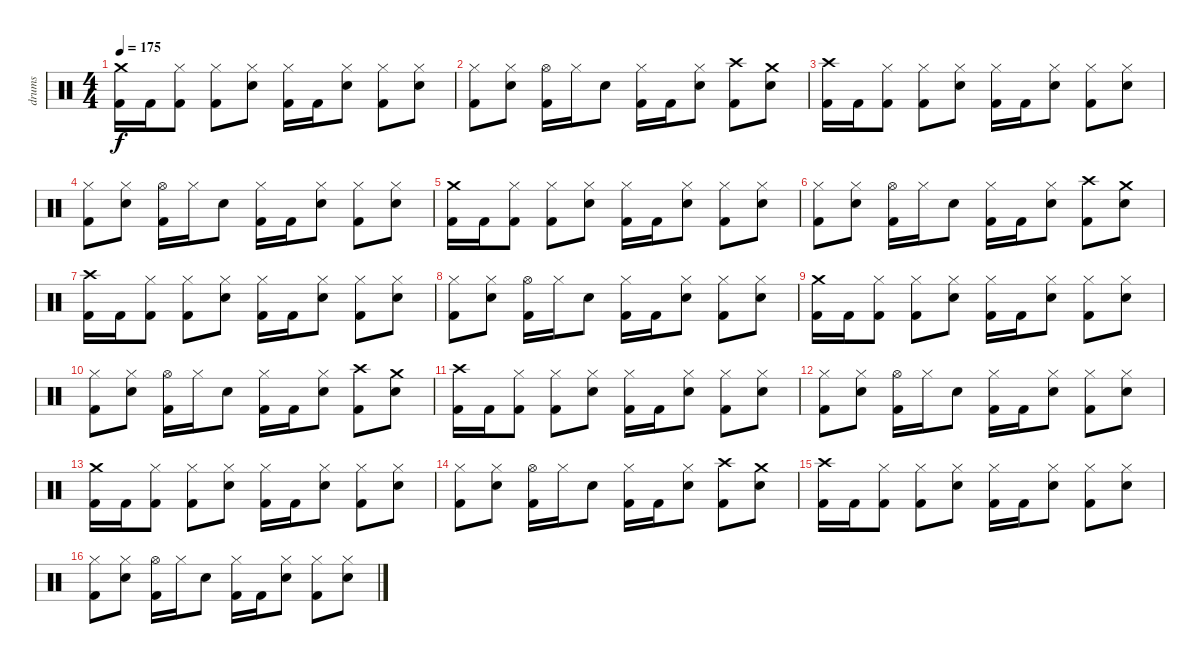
\track ("drums" "drums") {instrument percussion}
\staff {score}
\articulation defaults
\ts (4 4)
\tempo 175
\clef neutral
\ks c
("Crash medium (hit)" "Kick (hit) 2").16{dy f} "Kick (hit) 2".16 ("Hi-Hat (closed)" "Kick (hit) 2").8 ("Hi-Hat (closed)" "Kick (hit) 2").8 ("Hi-Hat (closed)" "Electric Snare (hit)").8 ("Hi-Hat (closed)" "Kick (hit) 2").16 "Kick (hit) 2".16 ("Hi-Hat (closed)" "Electric Snare (hit)").8 ("Hi-Hat (closed)" "Kick (hit) 2").8 ("Hi-Hat (closed)" "Electric Snare (hit)").8 |
("Hi-Hat (closed)" "Kick (hit) 2").8 ("Hi-Hat (closed)" "Electric Snare (hit)").8 ("Hi-Hat (open)" "Kick (hit) 2").16 "Hi-Hat (closed)".16 "Electric Snare (hit)".8 ("Hi-Hat (closed)" "Kick (hit) 2").16 "Kick (hit) 2".16 ("Hi-Hat (closed)" "Electric Snare (hit)").8 ("Crash high (hit)" "Kick (hit) 2").8 ("Crash medium (hit)" "Electric Snare (hit)").8 |
("Crash high (hit)" "Kick (hit) 2").16 "Kick (hit) 2".16 ("Hi-Hat (closed)" "Kick (hit) 2").8 ("Hi-Hat (closed)" "Kick (hit) 2").8 ("Hi-Hat (closed)" "Electric Snare (hit)").8 ("Hi-Hat (closed)" "Kick (hit) 2").16 "Kick (hit) 2".16 ("Hi-Hat (closed)" "Electric Snare (hit)").8 ("Hi-Hat (closed)" "Kick (hit) 2").8 ("Hi-Hat (closed)" "Electric Snare (hit)").8 |
("Hi-Hat (closed)" "Kick (hit) 2").8 ("Hi-Hat (closed)" "Electric Snare (hit)").8 ("Hi-Hat (open)" "Kick (hit) 2").16 "Hi-Hat (closed)".16 "Electric Snare (hit)".8 ("Hi-Hat (closed)" "Kick (hit) 2").16 "Kick (hit) 2".16 ("Hi-Hat (closed)" "Electric Snare (hit)").8 ("Hi-Hat (closed)" "Kick (hit) 2").8 ("Hi-Hat (closed)" "Electric Snare (hit)").8 |
("Crash medium (hit)" "Kick (hit) 2").16 "Kick (hit) 2".16 ("Hi-Hat (closed)" "Kick (hit) 2").8 ("Hi-Hat (closed)" "Kick (hit) 2").8 ("Hi-Hat (closed)" "Electric Snare (hit)").8 ("Hi-Hat (closed)" "Kick (hit) 2").16 "Kick (hit) 2".16 ("Hi-Hat (closed)" "Electric Snare (hit)").8 ("Hi-Hat (closed)" "Kick (hit) 2").8 ("Hi-Hat (closed)" "Electric Snare (hit)").8 |
("Hi-Hat (closed)" "Kick (hit) 2").8 ("Hi-Hat (closed)" "Electric Snare (hit)").8 ("Hi-Hat (open)" "Kick (hit) 2").16 "Hi-Hat (closed)".16 "Electric Snare (hit)".8 ("Hi-Hat (closed)" "Kick (hit) 2").16 "Kick (hit) 2".16 ("Hi-Hat (closed)" "Electric Snare (hit)").8 ("Crash high (hit)" "Kick (hit) 2").8 ("Crash medium (hit)" "Electric Snare (hit)").8 |
("Crash high (hit)" "Kick (hit) 2").16 "Kick (hit) 2".16 ("Hi-Hat (closed)" "Kick (hit) 2").8 ("Hi-Hat (closed)" "Kick (hit) 2").8 ("Hi-Hat (closed)" "Electric Snare (hit)").8 ("Hi-Hat (closed)" "Kick (hit) 2").16 "Kick (hit) 2".16 ("Hi-Hat (closed)" "Electric Snare (hit)").8 ("Hi-Hat (closed)" "Kick (hit) 2").8 ("Hi-Hat (closed)" "Electric Snare (hit)").8 |
("Hi-Hat (closed)" "Kick (hit) 2").8 ("Hi-Hat (closed)" "Electric Snare (hit)").8 ("Hi-Hat (open)" "Kick (hit) 2").16 "Hi-Hat (closed)".16 "Electric Snare (hit)".8 ("Hi-Hat (closed)" "Kick (hit) 2").16 "Kick (hit) 2".16 ("Hi-Hat (closed)" "Electric Snare (hit)").8 ("Hi-Hat (closed)" "Kick (hit) 2").8 ("Hi-Hat (closed)" "Electric Snare (hit)").8 |
("Crash medium (hit)" "Kick (hit) 2").16 "Kick (hit) 2".16 ("Hi-Hat (closed)" "Kick (hit) 2").8 ("Hi-Hat (closed)" "Kick (hit) 2").8 ("Hi-Hat (closed)" "Electric Snare (hit)").8 ("Hi-Hat (closed)" "Kick (hit) 2").16 "Kick (hit) 2".16 ("Hi-Hat (closed)" "Electric Snare (hit)").8 ("Hi-Hat (closed)" "Kick (hit) 2").8 ("Hi-Hat (closed)" "Electric Snare (hit)").8 |
("Hi-Hat (closed)" "Kick (hit) 2").8 ("Hi-Hat (closed)" "Electric Snare (hit)").8 ("Hi-Hat (open)" "Kick (hit) 2").16 "Hi-Hat (closed)".16 "Electric Snare (hit)".8 ("Hi-Hat (closed)" "Kick (hit) 2").16 "Kick (hit) 2".16 ("Hi-Hat (closed)" "Electric Snare (hit)").8 ("Crash high (hit)" "Kick (hit) 2").8 ("Crash medium (hit)" "Electric Snare (hit)").8 |
("Crash high (hit)" "Kick (hit) 2").16 "Kick (hit) 2".16 ("Hi-Hat (closed)" "Kick (hit) 2").8 ("Hi-Hat (closed)" "Kick (hit) 2").8 ("Hi-Hat (closed)" "Electric Snare (hit)").8 ("Hi-Hat (closed)" "Kick (hit) 2").16 "Kick (hit) 2".16 ("Hi-Hat (closed)" "Electric Snare (hit)").8 ("Hi-Hat (closed)" "Kick (hit) 2").8 ("Hi-Hat (closed)" "Electric Snare (hit)").8 |
("Hi-Hat (closed)" "Kick (hit) 2").8 ("Hi-Hat (closed)" "Electric Snare (hit)").8 ("Hi-Hat (open)" "Kick (hit) 2").16 "Hi-Hat (closed)".16 "Electric Snare (hit)".8 ("Hi-Hat (closed)" "Kick (hit) 2").16 "Kick (hit) 2".16 ("Hi-Hat (closed)" "Electric Snare (hit)").8 ("Hi-Hat (closed)" "Kick (hit) 2").8 ("Hi-Hat (closed)" "Electric Snare (hit)").8 |
("Crash medium (hit)" "Kick (hit) 2").16 "Kick (hit) 2".16 ("Hi-Hat (closed)" "Kick (hit) 2").8 ("Hi-Hat (closed)" "Kick (hit) 2").8 ("Hi-Hat (closed)" "Electric Snare (hit)").8 ("Hi-Hat (closed)" "Kick (hit) 2").16 "Kick (hit) 2".16 ("Hi-Hat (closed)" "Electric Snare (hit)").8 ("Hi-Hat (closed)" "Kick (hit) 2").8 ("Hi-Hat (closed)" "Electric Snare (hit)").8 |
("Hi-Hat (closed)" "Kick (hit) 2").8 ("Hi-Hat (closed)" "Electric Snare (hit)").8 ("Hi-Hat (open)" "Kick (hit) 2").16 "Hi-Hat (closed)".16 "Electric Snare (hit)".8 ("Hi-Hat (closed)" "Kick (hit) 2").16 "Kick (hit) 2".16 ("Hi-Hat (closed)" "Electric Snare (hit)").8 ("Crash high (hit)" "Kick (hit) 2").8 ("Crash medium (hit)" "Electric Snare (hit)").8 |
("Crash high (hit)" "Kick (hit) 2").16 "Kick (hit) 2".16 ("Hi-Hat (closed)" "Kick (hit) 2").8 ("Hi-Hat (closed)" "Kick (hit) 2").8 ("Hi-Hat (closed)" "Electric Snare (hit)").8 ("Hi-Hat (closed)" "Kick (hit) 2").16 "Kick (hit) 2".16 ("Hi-Hat (closed)" "Electric Snare (hit)").8 ("Hi-Hat (closed)" "Kick (hit) 2").8 ("Hi-Hat (closed)" "Electric Snare (hit)").8 |
("Hi-Hat (closed)" "Kick (hit) 2").8 ("Hi-Hat (closed)" "Electric Snare (hit)").8 ("Hi-Hat (open)" "Kick (hit) 2").16 "Hi-Hat (closed)".16 "Electric Snare (hit)".8 ("Hi-Hat (closed)" "Kick (hit) 2").16 "Kick (hit) 2".16 ("Hi-Hat (closed)" "Electric Snare (hit)").8 ("Hi-Hat (closed)" "Kick (hit) 2").8 ("Hi-Hat (closed)" "Electric Snare (hit)").8
